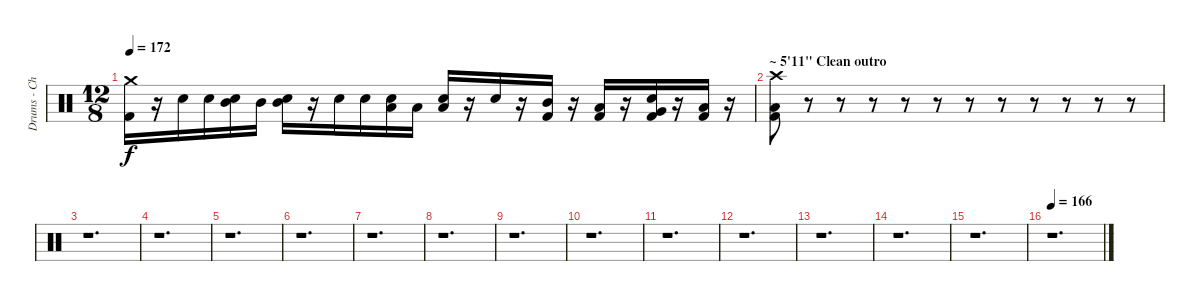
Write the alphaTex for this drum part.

\track ("Drums - Christopher Merzinsky" "Drums - Ch") {instrument percussion}
\staff {score}
\articulation defaults
\ts (12 8)
\tempo 172
\clef neutral
\ks c
("Kick (hit) 2" "Crash medium (hit)").16{dy f} r.16 "Electric Snare (hit)".16 "Electric Snare (hit)".16 ("Electric Snare (hit)" "Mid Tom (hit)").16 "Mid Tom (hit)".16 ("Electric Snare (hit)" "Mid Tom (hit)").16 r.16 "Snare (hit) 2".16 "Snare (hit) 2".16 ("Snare (hit) 2" "Low Tom (hit)").16 "Low Tom (hit)".16 ("Snare (hit) 2" "Low Tom (hit)").16 r.16 "Electric Snare (hit)".16 r.16 ("Kick (hit) 2" "Mid Tom (hit)").16 r.16 ("Kick (hit) 2" "Low Tom (hit)").16 r.16 ("Kick (hit) 2" "Very Low Tom (hit)" "Electric Snare (hit)").16 r.16 ("Kick (hit) 2" "Low Floor Tom (hit)").16 r.16 |
\section ("" "~ 5'11\" Clean outro")
("Kick (hit) 2" "Low Floor Tom (hit)" "Crash high (hit)").8 r.8 r.8 r.8 r.8 r.8 r.8 r.8 r.8 r.8 r.8 r.8 |
r.1{d} |
r.1{d} |
r.1{d} |
r.1{d} |
r.1{d} |
r.1{d} |
r.1{d} |
r.1{d} |
r.1{d} |
r.1{d} |
r.1{d} |
r.1{d} |
r.1{d} |
\tempo 166
r.1{d}
